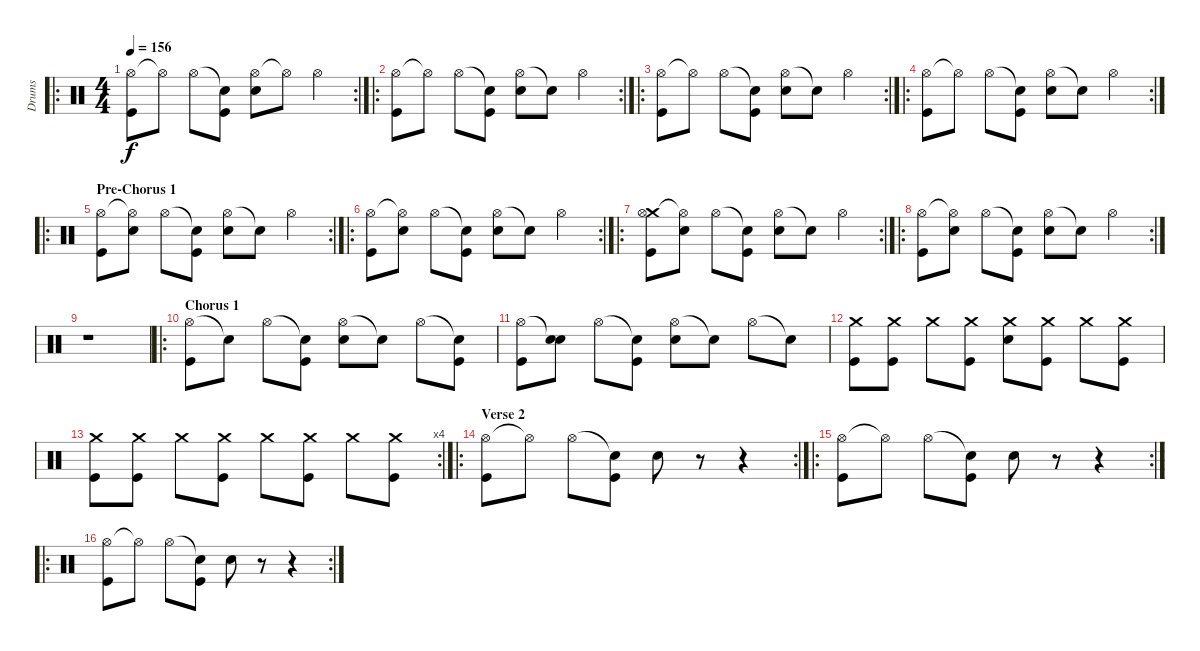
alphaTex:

\track ("Drums" "Drums") {instrument percussion}
\staff {score}
\articulation defaults
\ro
\rc 2
\ts (4 4)
\tempo 156
\clef neutral
\ks c
("Hi-Hat (open)" "Kick (hit)").8{dy f} "Hi-Hat (open)"{t}.8 "Hi-Hat (open)".8 ("Snare (hit)"{t} "Kick (hit)").8 ("Hi-Hat (open)" "Electric Snare (hit)").8 "Hi-Hat (open)"{t}.8 "Hi-Hat (open)".4 |
\ro
\rc 2
("Hi-Hat (open)" "Kick (hit)").8 "Hi-Hat (open)"{t}.8 "Hi-Hat (open)".8 ("Snare (hit)"{t} "Kick (hit)").8 ("Hi-Hat (open)" "Electric Snare (hit)").8 "Snare (hit)"{t}.8 "Hi-Hat (open)".4 |
\ro
\rc 2
("Hi-Hat (open)" "Kick (hit)").8 "Hi-Hat (open)"{t}.8 "Hi-Hat (open)".8 ("Snare (hit)"{t} "Kick (hit)").8 ("Hi-Hat (open)" "Electric Snare (hit)").8 "Snare (hit)"{t}.8 "Hi-Hat (open)".4 |
\ro
\rc 2
("Hi-Hat (open)" "Kick (hit)").8 "Hi-Hat (open)"{t}.8 "Hi-Hat (open)".8 ("Snare (hit)"{t} "Kick (hit)").8 ("Hi-Hat (open)" "Electric Snare (hit)").8 "Snare (hit)"{t}.8 "Hi-Hat (open)".4 |
\ro
\rc 2
\section ("" "Pre-Chorus 1")
("Hi-Hat (open)" "Kick (hit)").8 ("Hi-Hat (open)"{t} "Electric Snare (hit)").8 "Hi-Hat (open)".8 ("Snare (hit)"{t} "Kick (hit)").8 ("Hi-Hat (open)" "Electric Snare (hit)").8 "Snare (hit)"{t}.8 "Hi-Hat (open)".4 |
\ro
\rc 2
("Hi-Hat (open)" "Kick (hit)").8 ("Hi-Hat (open)"{t} "Electric Snare (hit)").8 "Hi-Hat (open)".8 ("Snare (hit)"{t} "Kick (hit)").8 ("Hi-Hat (open)" "Electric Snare (hit)").8 "Snare (hit)"{t}.8 "Hi-Hat (open)".4 |
\ro
\rc 2
("Crash medium (hit)" "Hi-Hat (open)" "Kick (hit)").8 ("Hi-Hat (open)"{t} "Electric Snare (hit)").8 "Hi-Hat (open)".8 ("Snare (hit)"{t} "Kick (hit)").8 ("Hi-Hat (open)" "Electric Snare (hit)").8 "Snare (hit)"{t}.8 "Hi-Hat (open)".4 |
\ro
\rc 2
("Hi-Hat (open)" "Kick (hit)").8 ("Hi-Hat (open)"{t} "Electric Snare (hit)").8 "Hi-Hat (open)".8 ("Snare (hit)"{t} "Kick (hit)").8 ("Hi-Hat (open)" "Electric Snare (hit)").8 "Snare (hit)"{t}.8 "Hi-Hat (open)".4 |
r.1 |
\ro
\section ("" "Chorus 1")
("Hi-Hat (open)" "Kick (hit)").8 "Snare (hit)"{t}.8 "Hi-Hat (open)".8 ("Snare (hit)"{t} "Kick (hit)").8 ("Hi-Hat (open)" "Electric Snare (hit)").8 "Snare (hit)"{t}.8 "Hi-Hat (open)".8 ("Snare (hit)"{t} "Kick (hit)").8 |
("Hi-Hat (open)" "Kick (hit)").8 ("Snare (hit)"{t} "Electric Snare (hit)").8 "Hi-Hat (open)".8 ("Snare (hit)"{t} "Kick (hit)").8 ("Hi-Hat (open)" "Electric Snare (hit)").8 "Snare (hit)"{t}.8 "Hi-Hat (open)".8 "Snare (hit)"{t}.8 |
("Crash medium (hit)" "Kick (hit)").8 ("Crash medium (hit)" "Kick (hit)").8 "Crash medium (hit)".8 ("Crash medium (hit)" "Kick (hit)").8 ("Crash medium (hit)" "Electric Snare (hit)").8 ("Crash medium (hit)" "Kick (hit)").8 "Crash medium (hit)".8 ("Crash medium (hit)" "Kick (hit)").8 |
\rc 4
("Crash medium (hit)" "Kick (hit)").8 ("Crash medium (hit)" "Kick (hit)").8 "Crash medium (hit)".8 ("Crash medium (hit)" "Kick (hit)").8 "Crash medium (hit)".8 ("Crash medium (hit)" "Kick (hit)").8 "Crash medium (hit)".8 ("Crash medium (hit)" "Kick (hit)").8 |
\ro
\rc 2
\section ("" "Verse 2")
("Hi-Hat (open)" "Kick (hit)").8 "Hi-Hat (open)"{t}.8 "Hi-Hat (open)".8 ("Snare (hit)"{t} "Kick (hit)").8 "Electric Snare (hit)".8 r.8 r.4 |
\ro
\rc 2
("Hi-Hat (open)" "Kick (hit)").8 "Hi-Hat (open)"{t}.8 "Hi-Hat (open)".8 ("Snare (hit)"{t} "Kick (hit)").8 "Electric Snare (hit)".8 r.8 r.4 |
\ro
\rc 2
("Hi-Hat (open)" "Kick (hit)").8 "Hi-Hat (open)"{t}.8 "Hi-Hat (open)".8 ("Snare (hit)"{t} "Kick (hit)").8 "Electric Snare (hit)".8 r.8 r.4
